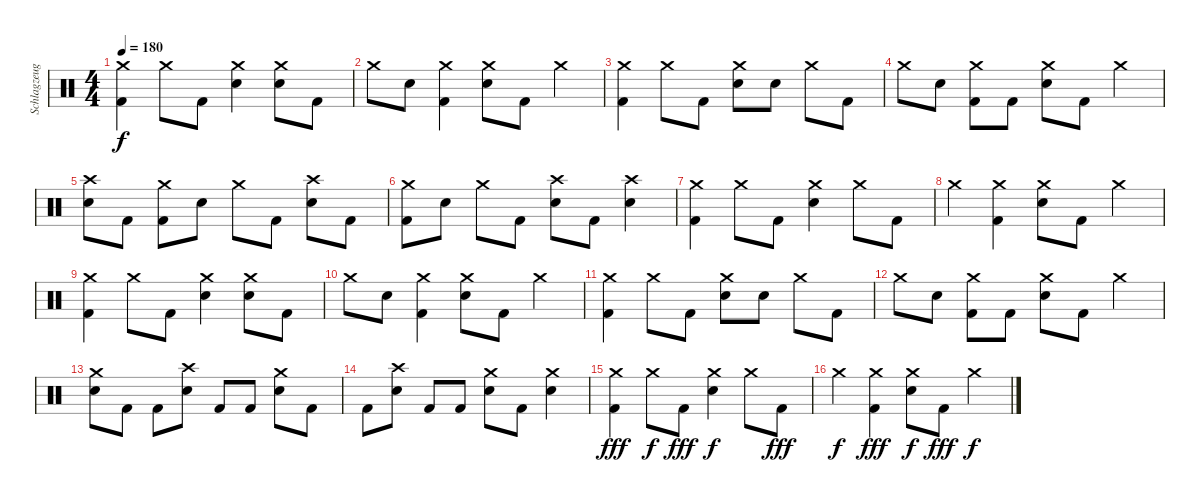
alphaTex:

\track ("Schlagzeug" "Schlagzeug") {instrument percussion}
\staff {score}
\articulation defaults
\ts (4 4)
\tempo 180
\clef neutral
\ks c
("Crash medium (hit)" "Kick (hit) 2").4{dy f} "Crash medium (hit)".8 "Kick (hit) 2".8 ("Crash medium (hit)" "Electric Snare (hit)").4 ("Crash medium (hit)" "Electric Snare (hit)").8 "Kick (hit) 2".8 |
"Crash medium (hit)".8 "Electric Snare (hit)".8 ("Crash medium (hit)" "Kick (hit) 2").4 ("Crash medium (hit)" "Electric Snare (hit)").8 "Kick (hit) 2".8 "Crash medium (hit)".4 |
("Crash medium (hit)" "Kick (hit) 2").4 "Crash medium (hit)".8 "Kick (hit) 2".8 ("Crash medium (hit)" "Electric Snare (hit)").8 "Electric Snare (hit)".8 "Crash medium (hit)".8 "Kick (hit) 2".8 |
"Crash medium (hit)".8 "Electric Snare (hit)".8 ("Crash medium (hit)" "Kick (hit) 2").8 "Kick (hit) 2".8 ("Crash medium (hit)" "Electric Snare (hit)").8 "Kick (hit) 2".8 "Crash medium (hit)".4 |
("Crash high (hit)" "Electric Snare (hit)").8 "Kick (hit) 2".8 ("Crash medium (hit)" "Kick (hit) 2").8 "Electric Snare (hit)".8 "Crash medium (hit)".8 "Kick (hit) 2".8 ("Crash high (hit)" "Electric Snare (hit)").8 "Kick (hit) 2".8 |
("Crash medium (hit)" "Kick (hit) 2").8 "Electric Snare (hit)".8 "Crash medium (hit)".8 "Kick (hit) 2".8 ("Crash high (hit)" "Electric Snare (hit)").8 "Kick (hit) 2".8 ("Crash high (hit)" "Electric Snare (hit)").4 |
("Crash medium (hit)" "Kick (hit) 2").4 "Crash medium (hit)".8 "Kick (hit) 2".8 ("Crash medium (hit)" "Electric Snare (hit)").4 "Crash medium (hit)".8 "Kick (hit) 2".8 |
"Crash medium (hit)".4 ("Crash medium (hit)" "Kick (hit) 2").4 ("Crash medium (hit)" "Electric Snare (hit)").8 "Kick (hit) 2".8 "Crash medium (hit)".4 |
("Crash medium (hit)" "Kick (hit) 2").4 "Crash medium (hit)".8 "Kick (hit) 2".8 ("Crash medium (hit)" "Electric Snare (hit)").4 ("Crash medium (hit)" "Electric Snare (hit)").8 "Kick (hit) 2".8 |
"Crash medium (hit)".8 "Electric Snare (hit)".8 ("Crash medium (hit)" "Kick (hit) 2").4 ("Crash medium (hit)" "Electric Snare (hit)").8 "Kick (hit) 2".8 "Crash medium (hit)".4 |
("Crash medium (hit)" "Kick (hit) 2").4 "Crash medium (hit)".8 "Kick (hit) 2".8 ("Crash medium (hit)" "Electric Snare (hit)").8 "Electric Snare (hit)".8 "Crash medium (hit)".8 "Kick (hit) 2".8 |
"Crash medium (hit)".8 "Electric Snare (hit)".8 ("Crash medium (hit)" "Kick (hit) 2").8 "Kick (hit) 2".8 ("Crash medium (hit)" "Electric Snare (hit)").8 "Kick (hit) 2".8 "Crash medium (hit)".4 |
("Crash medium (hit)" "Electric Snare (hit)").8 "Kick (hit) 2".8 "Kick (hit) 2".8 ("Crash high (hit)" "Electric Snare (hit)").8 "Kick (hit) 2".8 "Kick (hit) 2".8 ("Crash medium (hit)" "Electric Snare (hit)").8 "Kick (hit) 2".8 |
"Kick (hit) 2".8 ("Crash high (hit)" "Electric Snare (hit)").8 "Kick (hit) 2".8 "Kick (hit) 2".8 ("Crash medium (hit)" "Electric Snare (hit)").8 "Kick (hit) 2".8 ("Crash medium (hit)" "Electric Snare (hit)").4 |
("Crash medium (hit)" "Kick (hit) 2").4{dy fff} "Crash medium (hit)".8{dy f} "Kick (hit) 2".8{dy fff} ("Crash medium (hit)" "Electric Snare (hit)").4{dy f} "Crash medium (hit)".8 "Kick (hit) 2".8{dy fff} |
"Crash medium (hit)".4{dy f} ("Crash medium (hit)" "Kick (hit) 2").4{dy fff} ("Crash medium (hit)" "Electric Snare (hit)").8{dy f} "Kick (hit) 2".8{dy fff} "Crash medium (hit)".4{dy f}
